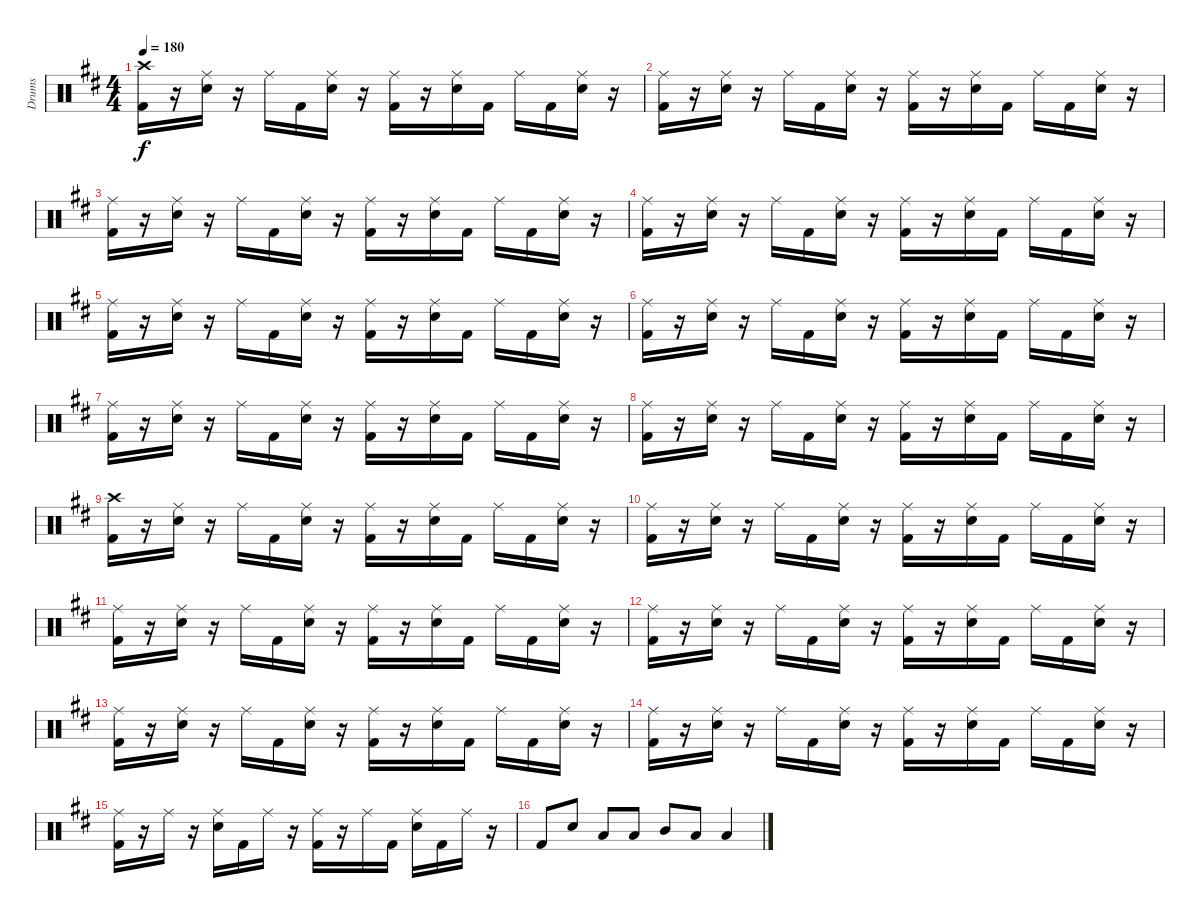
\track ("Drums" "Drums") {instrument percussion}
\staff {score}
\articulation defaults
\ts (4 4)
\tempo 180
\clef neutral
\ks bminor
("Crash high (hit)" "Kick (hit) 2").16{dy f} r.16 ("Ride (middle)" "Electric Snare (hit)").16 r.16 "Ride (middle)".16 "Kick (hit) 2".16 ("Ride (middle)" "Electric Snare (hit)").16 r.16 ("Ride (middle)" "Kick (hit) 2").16 r.16 ("Ride (middle)" "Electric Snare (hit)").16 "Kick (hit) 2".16 "Ride (middle)".16 "Kick (hit) 2".16 ("Ride (middle)" "Electric Snare (hit)").16 r.16 |
("Ride (middle)" "Kick (hit) 2").16 r.16 ("Ride (middle)" "Electric Snare (hit)").16 r.16 "Ride (middle)".16 "Kick (hit) 2".16 ("Ride (middle)" "Electric Snare (hit)").16 r.16 ("Ride (middle)" "Kick (hit) 2").16 r.16 ("Ride (middle)" "Electric Snare (hit)").16 "Kick (hit) 2".16 "Ride (middle)".16 "Kick (hit) 2".16 ("Ride (middle)" "Electric Snare (hit)").16 r.16 |
("Ride (middle)" "Kick (hit) 2").16 r.16 ("Ride (middle)" "Electric Snare (hit)").16 r.16 "Ride (middle)".16 "Kick (hit) 2".16 ("Ride (middle)" "Electric Snare (hit)").16 r.16 ("Ride (middle)" "Kick (hit) 2").16 r.16 ("Ride (middle)" "Electric Snare (hit)").16 "Kick (hit) 2".16 "Ride (middle)".16 "Kick (hit) 2".16 ("Ride (middle)" "Electric Snare (hit)").16 r.16 |
("Ride (middle)" "Kick (hit) 2").16 r.16 ("Ride (middle)" "Electric Snare (hit)").16 r.16 "Ride (middle)".16 "Kick (hit) 2".16 ("Ride (middle)" "Electric Snare (hit)").16 r.16 ("Ride (middle)" "Kick (hit) 2").16 r.16 ("Ride (middle)" "Electric Snare (hit)").16 "Kick (hit) 2".16 "Ride (middle)".16 "Kick (hit) 2".16 ("Ride (middle)" "Electric Snare (hit)").16 r.16 |
("Ride (middle)" "Kick (hit) 2").16 r.16 ("Ride (middle)" "Electric Snare (hit)").16 r.16 "Ride (middle)".16 "Kick (hit) 2".16 ("Ride (middle)" "Electric Snare (hit)").16 r.16 ("Ride (middle)" "Kick (hit) 2").16 r.16 ("Ride (middle)" "Electric Snare (hit)").16 "Kick (hit) 2".16 "Ride (middle)".16 "Kick (hit) 2".16 ("Ride (middle)" "Electric Snare (hit)").16 r.16 |
("Ride (middle)" "Kick (hit) 2").16 r.16 ("Ride (middle)" "Electric Snare (hit)").16 r.16 "Ride (middle)".16 "Kick (hit) 2".16 ("Ride (middle)" "Electric Snare (hit)").16 r.16 ("Ride (middle)" "Kick (hit) 2").16 r.16 ("Ride (middle)" "Electric Snare (hit)").16 "Kick (hit) 2".16 "Ride (middle)".16 "Kick (hit) 2".16 ("Ride (middle)" "Electric Snare (hit)").16 r.16 |
("Ride (middle)" "Kick (hit) 2").16 r.16 ("Ride (middle)" "Electric Snare (hit)").16 r.16 "Ride (middle)".16 "Kick (hit) 2".16 ("Ride (middle)" "Electric Snare (hit)").16 r.16 ("Ride (middle)" "Kick (hit) 2").16 r.16 ("Ride (middle)" "Electric Snare (hit)").16 "Kick (hit) 2".16 "Ride (middle)".16 "Kick (hit) 2".16 ("Ride (middle)" "Electric Snare (hit)").16 r.16 |
("Ride (middle)" "Kick (hit) 2").16 r.16 ("Ride (middle)" "Electric Snare (hit)").16 r.16 "Ride (middle)".16 "Kick (hit) 2".16 ("Ride (middle)" "Electric Snare (hit)").16 r.16 ("Ride (middle)" "Kick (hit) 2").16 r.16 ("Ride (middle)" "Electric Snare (hit)").16 "Kick (hit) 2".16 "Ride (middle)".16 "Kick (hit) 2".16 ("Ride (middle)" "Electric Snare (hit)").16 r.16 |
("Crash high (hit)" "Kick (hit) 2").16 r.16 ("Ride (middle)" "Electric Snare (hit)").16 r.16 "Ride (middle)".16 "Kick (hit) 2".16 ("Ride (middle)" "Electric Snare (hit)").16 r.16 ("Ride (middle)" "Kick (hit) 2").16 r.16 ("Ride (middle)" "Electric Snare (hit)").16 "Kick (hit) 2".16 "Ride (middle)".16 "Kick (hit) 2".16 ("Ride (middle)" "Electric Snare (hit)").16 r.16 |
("Ride (middle)" "Kick (hit) 2").16 r.16 ("Ride (middle)" "Electric Snare (hit)").16 r.16 "Ride (middle)".16 "Kick (hit) 2".16 ("Ride (middle)" "Electric Snare (hit)").16 r.16 ("Ride (middle)" "Kick (hit) 2").16 r.16 ("Ride (middle)" "Electric Snare (hit)").16 "Kick (hit) 2".16 "Ride (middle)".16 "Kick (hit) 2".16 ("Ride (middle)" "Electric Snare (hit)").16 r.16 |
("Ride (middle)" "Kick (hit) 2").16 r.16 ("Ride (middle)" "Electric Snare (hit)").16 r.16 "Ride (middle)".16 "Kick (hit) 2".16 ("Ride (middle)" "Electric Snare (hit)").16 r.16 ("Ride (middle)" "Kick (hit) 2").16 r.16 ("Ride (middle)" "Electric Snare (hit)").16 "Kick (hit) 2".16 "Ride (middle)".16 "Kick (hit) 2".16 ("Ride (middle)" "Electric Snare (hit)").16 r.16 |
("Ride (middle)" "Kick (hit) 2").16 r.16 ("Ride (middle)" "Electric Snare (hit)").16 r.16 "Ride (middle)".16 "Kick (hit) 2".16 ("Ride (middle)" "Electric Snare (hit)").16 r.16 ("Ride (middle)" "Kick (hit) 2").16 r.16 ("Ride (middle)" "Electric Snare (hit)").16 "Kick (hit) 2".16 "Ride (middle)".16 "Kick (hit) 2".16 ("Ride (middle)" "Electric Snare (hit)").16 r.16 |
("Ride (middle)" "Kick (hit) 2").16 r.16 ("Ride (middle)" "Electric Snare (hit)").16 r.16 "Ride (middle)".16 "Kick (hit) 2".16 ("Ride (middle)" "Electric Snare (hit)").16 r.16 ("Ride (middle)" "Kick (hit) 2").16 r.16 ("Ride (middle)" "Electric Snare (hit)").16 "Kick (hit) 2".16 "Ride (middle)".16 "Kick (hit) 2".16 ("Ride (middle)" "Electric Snare (hit)").16 r.16 |
("Ride (middle)" "Kick (hit) 2").16 r.16 ("Ride (middle)" "Electric Snare (hit)").16 r.16 "Ride (middle)".16 "Kick (hit) 2".16 ("Ride (middle)" "Electric Snare (hit)").16 r.16 ("Ride (middle)" "Kick (hit) 2").16 r.16 ("Ride (middle)" "Electric Snare (hit)").16 "Kick (hit) 2".16 "Ride (middle)".16 "Kick (hit) 2".16 ("Ride (middle)" "Electric Snare (hit)").16 r.16 |
("Ride (middle)" "Kick (hit) 2").16 r.16 "Ride (middle)".16 r.16 ("Ride (middle)" "Electric Snare (hit)").16 "Kick (hit) 2".16 "Ride (middle)".16 r.16 ("Ride (middle)" "Kick (hit) 2").16 r.16 "Ride (middle)".16 "Kick (hit) 2".16 ("Ride (middle)" "Electric Snare (hit)").16 "Kick (hit) 2".16 "Ride (middle)".16 r.16 |
"Kick (hit) 2".8 "Electric Snare (hit)".8 "Low Tom (hit)".8 "Low Tom (hit)".8 "Mid Tom (hit)".8 "Low Tom (hit)".8 "Low Floor Tom (hit)".4
